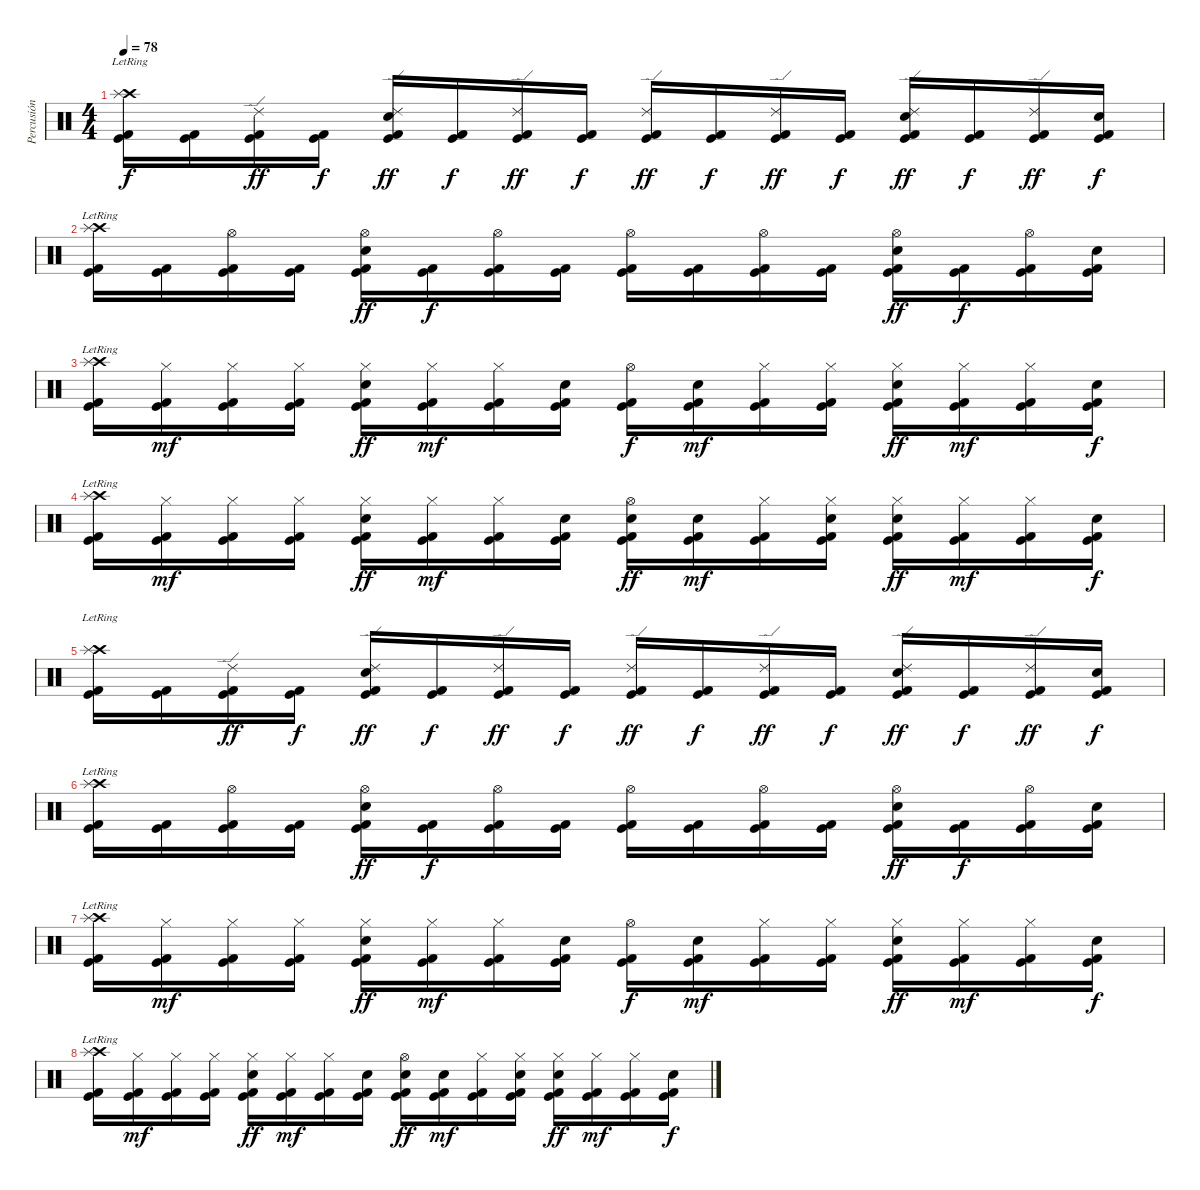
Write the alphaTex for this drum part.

\track ("Percusión" "Percusión") {instrument percussion}
\staff {score}
\articulation defaults
\ts (4 4)
\tempo 78
\clef neutral
\ks c
("Crash high (hit)"{lr} "Splash (hit)"{lr} "Kick (hit) 2" "Kick (hit)").16{dy f} ("Kick (hit) 2" "Kick (hit)").16 ("Ride (edge) 2" "Kick (hit) 2" "Kick (hit)").16{dy ff} ("Kick (hit) 2" "Kick (hit)").16{dy f} ("Ride (edge) 2" "Electric Snare (hit)" "Kick (hit) 2" "Kick (hit)").16{dy ff} ("Kick (hit) 2" "Kick (hit)").16{dy f} ("Ride (edge) 2" "Kick (hit) 2" "Kick (hit)").16{dy ff} ("Kick (hit) 2" "Kick (hit)").16{dy f} ("Ride (edge) 2" "Kick (hit) 2" "Kick (hit)").16{dy ff} ("Kick (hit) 2" "Kick (hit)").16{dy f} ("Ride (edge) 2" "Kick (hit) 2" "Kick (hit)").16{dy ff} ("Kick (hit) 2" "Kick (hit)").16{dy f} ("Ride (edge) 2" "Electric Snare (hit)" "Kick (hit) 2" "Kick (hit)").16{dy ff} ("Kick (hit) 2" "Kick (hit)").16{dy f} ("Ride (edge) 2" "Kick (hit) 2" "Kick (hit)").16{dy ff} ("Electric Snare (hit)" "Kick (hit) 2" "Kick (hit)").16{dy f} |
("Crash high (hit)"{lr} "Splash (hit)"{lr} "Kick (hit) 2" "Kick (hit)").16 ("Kick (hit) 2" "Kick (hit)").16 ("Hi-Hat (open)" "Kick (hit) 2" "Kick (hit)").16 ("Kick (hit) 2" "Kick (hit)").16 ("Hi-Hat (open)" "Electric Snare (hit)" "Kick (hit) 2" "Kick (hit)").16{dy ff} ("Kick (hit) 2" "Kick (hit)").16{dy f} ("Hi-Hat (open)" "Kick (hit) 2" "Kick (hit)").16 ("Kick (hit) 2" "Kick (hit)").16 ("Hi-Hat (open)" "Kick (hit) 2" "Kick (hit)").16 ("Kick (hit) 2" "Kick (hit)").16 ("Hi-Hat (open)" "Kick (hit) 2" "Kick (hit)").16 ("Kick (hit) 2" "Kick (hit)").16 ("Hi-Hat (open)" "Electric Snare (hit)" "Kick (hit) 2" "Kick (hit)").16{dy ff} ("Kick (hit) 2" "Kick (hit)").16{dy f} ("Hi-Hat (open)" "Kick (hit) 2" "Kick (hit)").16 ("Electric Snare (hit)" "Kick (hit) 2" "Kick (hit)").16 |
("Crash high (hit)"{lr} "Splash (hit)"{lr} "Kick (hit) 2" "Kick (hit)").16 ("Hi-Hat (closed)" "Kick (hit) 2" "Kick (hit)").16{dy mf} ("Hi-Hat (closed)" "Kick (hit) 2" "Kick (hit)").16 ("Hi-Hat (closed)" "Kick (hit) 2" "Kick (hit)").16 ("Hi-Hat (closed)" "Electric Snare (hit)" "Kick (hit) 2" "Kick (hit)").16{dy ff} ("Hi-Hat (closed)" "Kick (hit) 2" "Kick (hit)").16{dy mf} ("Hi-Hat (closed)" "Kick (hit) 2" "Kick (hit)").16 ("Snare (hit)" "Kick (hit) 2" "Kick (hit)").16 ("Hi-Hat (open)" "Kick (hit) 2" "Kick (hit)").16{dy f} ("Snare (hit)" "Kick (hit) 2" "Kick (hit)").16{dy mf} ("Hi-Hat (closed)" "Kick (hit) 2" "Kick (hit)").16 ("Hi-Hat (closed)" "Kick (hit) 2" "Kick (hit)").16 ("Hi-Hat (closed)" "Electric Snare (hit)" "Kick (hit) 2" "Kick (hit)").16{dy ff} ("Hi-Hat (closed)" "Kick (hit) 2" "Kick (hit)").16{dy mf} ("Hi-Hat (closed)" "Kick (hit) 2" "Kick (hit)").16 ("Electric Snare (hit)" "Kick (hit) 2" "Kick (hit)").16{dy f} |
("Crash high (hit)"{lr} "Splash (hit)"{lr} "Kick (hit) 2" "Kick (hit)").16 ("Hi-Hat (closed)" "Kick (hit) 2" "Kick (hit)").16{dy mf} ("Hi-Hat (closed)" "Kick (hit) 2" "Kick (hit)").16 ("Hi-Hat (closed)" "Kick (hit) 2" "Kick (hit)").16 ("Hi-Hat (closed)" "Electric Snare (hit)" "Kick (hit) 2" "Kick (hit)").16{dy ff} ("Hi-Hat (closed)" "Kick (hit) 2" "Kick (hit)").16{dy mf} ("Hi-Hat (closed)" "Kick (hit) 2" "Kick (hit)").16 ("Snare (hit)" "Kick (hit) 2" "Kick (hit)").16 ("Hi-Hat (open)" "Electric Snare (hit)" "Kick (hit) 2" "Kick (hit)").16{dy ff} ("Snare (hit)" "Kick (hit) 2" "Kick (hit)").16{dy mf} ("Hi-Hat (closed)" "Kick (hit) 2" "Kick (hit)").16 ("Hi-Hat (closed)" "Electric Snare (hit)" "Kick (hit) 2" "Kick (hit)").16 ("Hi-Hat (closed)" "Electric Snare (hit)" "Kick (hit) 2" "Kick (hit)").16{dy ff} ("Hi-Hat (closed)" "Kick (hit) 2" "Kick (hit)").16{dy mf} ("Hi-Hat (closed)" "Kick (hit) 2" "Kick (hit)").16 ("Electric Snare (hit)" "Kick (hit) 2" "Kick (hit)").16{dy f} |
("Crash high (hit)"{lr} "Splash (hit)"{lr} "Kick (hit) 2" "Kick (hit)").16 ("Kick (hit) 2" "Kick (hit)").16 ("Ride (edge) 2" "Kick (hit) 2" "Kick (hit)").16{dy ff} ("Kick (hit) 2" "Kick (hit)").16{dy f} ("Ride (edge) 2" "Electric Snare (hit)" "Kick (hit) 2" "Kick (hit)").16{dy ff} ("Kick (hit) 2" "Kick (hit)").16{dy f} ("Ride (edge) 2" "Kick (hit) 2" "Kick (hit)").16{dy ff} ("Kick (hit) 2" "Kick (hit)").16{dy f} ("Ride (edge) 2" "Kick (hit) 2" "Kick (hit)").16{dy ff} ("Kick (hit) 2" "Kick (hit)").16{dy f} ("Ride (edge) 2" "Kick (hit) 2" "Kick (hit)").16{dy ff} ("Kick (hit) 2" "Kick (hit)").16{dy f} ("Ride (edge) 2" "Electric Snare (hit)" "Kick (hit) 2" "Kick (hit)").16{dy ff} ("Kick (hit) 2" "Kick (hit)").16{dy f} ("Ride (edge) 2" "Kick (hit) 2" "Kick (hit)").16{dy ff} ("Electric Snare (hit)" "Kick (hit) 2" "Kick (hit)").16{dy f} |
("Crash high (hit)"{lr} "Splash (hit)"{lr} "Kick (hit) 2" "Kick (hit)").16 ("Kick (hit) 2" "Kick (hit)").16 ("Hi-Hat (open)" "Kick (hit) 2" "Kick (hit)").16 ("Kick (hit) 2" "Kick (hit)").16 ("Hi-Hat (open)" "Electric Snare (hit)" "Kick (hit) 2" "Kick (hit)").16{dy ff} ("Kick (hit) 2" "Kick (hit)").16{dy f} ("Hi-Hat (open)" "Kick (hit) 2" "Kick (hit)").16 ("Kick (hit) 2" "Kick (hit)").16 ("Hi-Hat (open)" "Kick (hit) 2" "Kick (hit)").16 ("Kick (hit) 2" "Kick (hit)").16 ("Hi-Hat (open)" "Kick (hit) 2" "Kick (hit)").16 ("Kick (hit) 2" "Kick (hit)").16 ("Hi-Hat (open)" "Electric Snare (hit)" "Kick (hit) 2" "Kick (hit)").16{dy ff} ("Kick (hit) 2" "Kick (hit)").16{dy f} ("Hi-Hat (open)" "Kick (hit) 2" "Kick (hit)").16 ("Electric Snare (hit)" "Kick (hit) 2" "Kick (hit)").16 |
("Crash high (hit)"{lr} "Splash (hit)"{lr} "Kick (hit) 2" "Kick (hit)").16 ("Hi-Hat (closed)" "Kick (hit) 2" "Kick (hit)").16{dy mf} ("Hi-Hat (closed)" "Kick (hit) 2" "Kick (hit)").16 ("Hi-Hat (closed)" "Kick (hit) 2" "Kick (hit)").16 ("Hi-Hat (closed)" "Electric Snare (hit)" "Kick (hit) 2" "Kick (hit)").16{dy ff} ("Hi-Hat (closed)" "Kick (hit) 2" "Kick (hit)").16{dy mf} ("Hi-Hat (closed)" "Kick (hit) 2" "Kick (hit)").16 ("Snare (hit)" "Kick (hit) 2" "Kick (hit)").16 ("Hi-Hat (open)" "Kick (hit) 2" "Kick (hit)").16{dy f} ("Snare (hit)" "Kick (hit) 2" "Kick (hit)").16{dy mf} ("Hi-Hat (closed)" "Kick (hit) 2" "Kick (hit)").16 ("Hi-Hat (closed)" "Kick (hit) 2" "Kick (hit)").16 ("Hi-Hat (closed)" "Electric Snare (hit)" "Kick (hit) 2" "Kick (hit)").16{dy ff} ("Hi-Hat (closed)" "Kick (hit) 2" "Kick (hit)").16{dy mf} ("Hi-Hat (closed)" "Kick (hit) 2" "Kick (hit)").16 ("Electric Snare (hit)" "Kick (hit) 2" "Kick (hit)").16{dy f} |
("Crash high (hit)"{lr} "Splash (hit)"{lr} "Kick (hit) 2" "Kick (hit)").16 ("Hi-Hat (closed)" "Kick (hit) 2" "Kick (hit)").16{dy mf} ("Hi-Hat (closed)" "Kick (hit) 2" "Kick (hit)").16 ("Hi-Hat (closed)" "Kick (hit) 2" "Kick (hit)").16 ("Hi-Hat (closed)" "Electric Snare (hit)" "Kick (hit) 2" "Kick (hit)").16{dy ff} ("Hi-Hat (closed)" "Kick (hit) 2" "Kick (hit)").16{dy mf} ("Hi-Hat (closed)" "Kick (hit) 2" "Kick (hit)").16 ("Snare (hit)" "Kick (hit) 2" "Kick (hit)").16 ("Hi-Hat (open)" "Electric Snare (hit)" "Kick (hit) 2" "Kick (hit)").16{dy ff} ("Snare (hit)" "Kick (hit) 2" "Kick (hit)").16{dy mf} ("Hi-Hat (closed)" "Kick (hit) 2" "Kick (hit)").16 ("Hi-Hat (closed)" "Electric Snare (hit)" "Kick (hit) 2" "Kick (hit)").16 ("Hi-Hat (closed)" "Electric Snare (hit)" "Kick (hit) 2" "Kick (hit)").16{dy ff} ("Hi-Hat (closed)" "Kick (hit) 2" "Kick (hit)").16{dy mf} ("Hi-Hat (closed)" "Kick (hit) 2" "Kick (hit)").16 ("Electric Snare (hit)" "Kick (hit) 2" "Kick (hit)").16{dy f}
